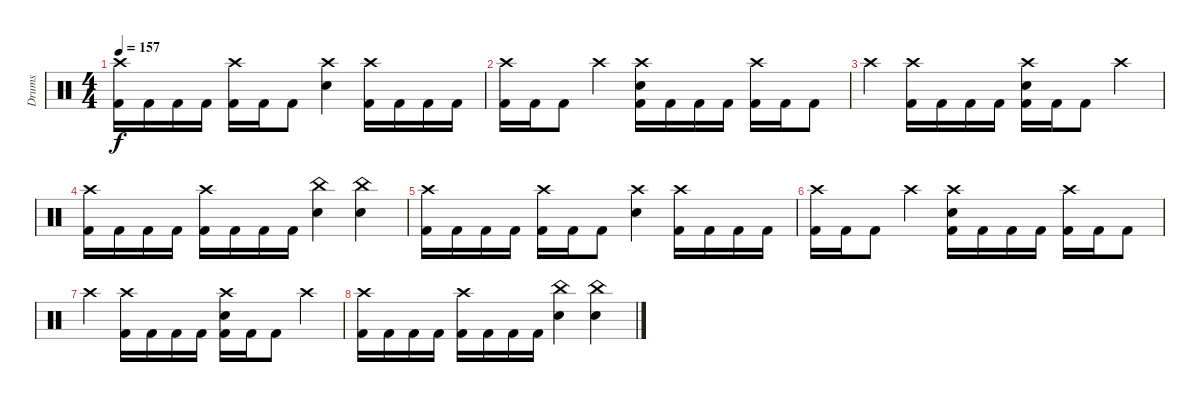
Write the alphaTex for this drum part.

\track ("Drums" "Drums") {instrument percussion}
\staff {score}
\articulation defaults
\ts (4 4)
\tempo 157
\clef neutral
\ks c
("Crash high (hit)" "Kick (hit) 2").16{dy f} "Kick (hit) 2".16 "Kick (hit) 2".16 "Kick (hit) 2".16 ("Crash high (hit)" "Kick (hit) 2").16 "Kick (hit) 2".16 "Kick (hit) 2".8 ("Crash high (hit)" "Electric Snare (hit)").4 ("Crash high (hit)" "Kick (hit) 2").16 "Kick (hit) 2".16 "Kick (hit) 2".16 "Kick (hit) 2".16 |
("Crash high (hit)" "Kick (hit) 2").16 "Kick (hit) 2".16 "Kick (hit) 2".8 "Crash high (hit)".4 ("Crash high (hit)" "Electric Snare (hit)" "Kick (hit) 2").16 "Kick (hit) 2".16 "Kick (hit) 2".16 "Kick (hit) 2".16 ("Crash high (hit)" "Kick (hit) 2").16 "Kick (hit) 2".16 "Kick (hit) 2".8 |
"Crash high (hit)".4 ("Crash high (hit)" "Kick (hit) 2").16 "Kick (hit) 2".16 "Kick (hit) 2".16 "Kick (hit) 2".16 ("Crash high (hit)" "Electric Snare (hit)" "Kick (hit) 2").16 "Kick (hit) 2".16 "Kick (hit) 2".8 "Crash high (hit)".4 |
("Crash high (hit)" "Kick (hit) 2").16 "Kick (hit) 2".16 "Kick (hit) 2".16 "Kick (hit) 2".16 ("Crash high (hit)" "Kick (hit) 2").16 "Kick (hit) 2".16 "Kick (hit) 2".16 "Kick (hit) 2".16 ("China (hit)" "Electric Snare (hit)").4 ("China (hit)" "Electric Snare (hit)").4 |
("Crash high (hit)" "Kick (hit) 2").16 "Kick (hit) 2".16 "Kick (hit) 2".16 "Kick (hit) 2".16 ("Crash high (hit)" "Kick (hit) 2").16 "Kick (hit) 2".16 "Kick (hit) 2".8 ("Crash high (hit)" "Electric Snare (hit)").4 ("Crash high (hit)" "Kick (hit) 2").16 "Kick (hit) 2".16 "Kick (hit) 2".16 "Kick (hit) 2".16 |
("Crash high (hit)" "Kick (hit) 2").16 "Kick (hit) 2".16 "Kick (hit) 2".8 "Crash high (hit)".4 ("Crash high (hit)" "Electric Snare (hit)" "Kick (hit) 2").16 "Kick (hit) 2".16 "Kick (hit) 2".16 "Kick (hit) 2".16 ("Crash high (hit)" "Kick (hit) 2").16 "Kick (hit) 2".16 "Kick (hit) 2".8 |
"Crash high (hit)".4 ("Crash high (hit)" "Kick (hit) 2").16 "Kick (hit) 2".16 "Kick (hit) 2".16 "Kick (hit) 2".16 ("Crash high (hit)" "Electric Snare (hit)" "Kick (hit) 2").16 "Kick (hit) 2".16 "Kick (hit) 2".8 "Crash high (hit)".4 |
("Crash high (hit)" "Kick (hit) 2").16 "Kick (hit) 2".16 "Kick (hit) 2".16 "Kick (hit) 2".16 ("Crash high (hit)" "Kick (hit) 2").16 "Kick (hit) 2".16 "Kick (hit) 2".16 "Kick (hit) 2".16 ("China (hit)" "Electric Snare (hit)").4 ("China (hit)" "Electric Snare (hit)").4
